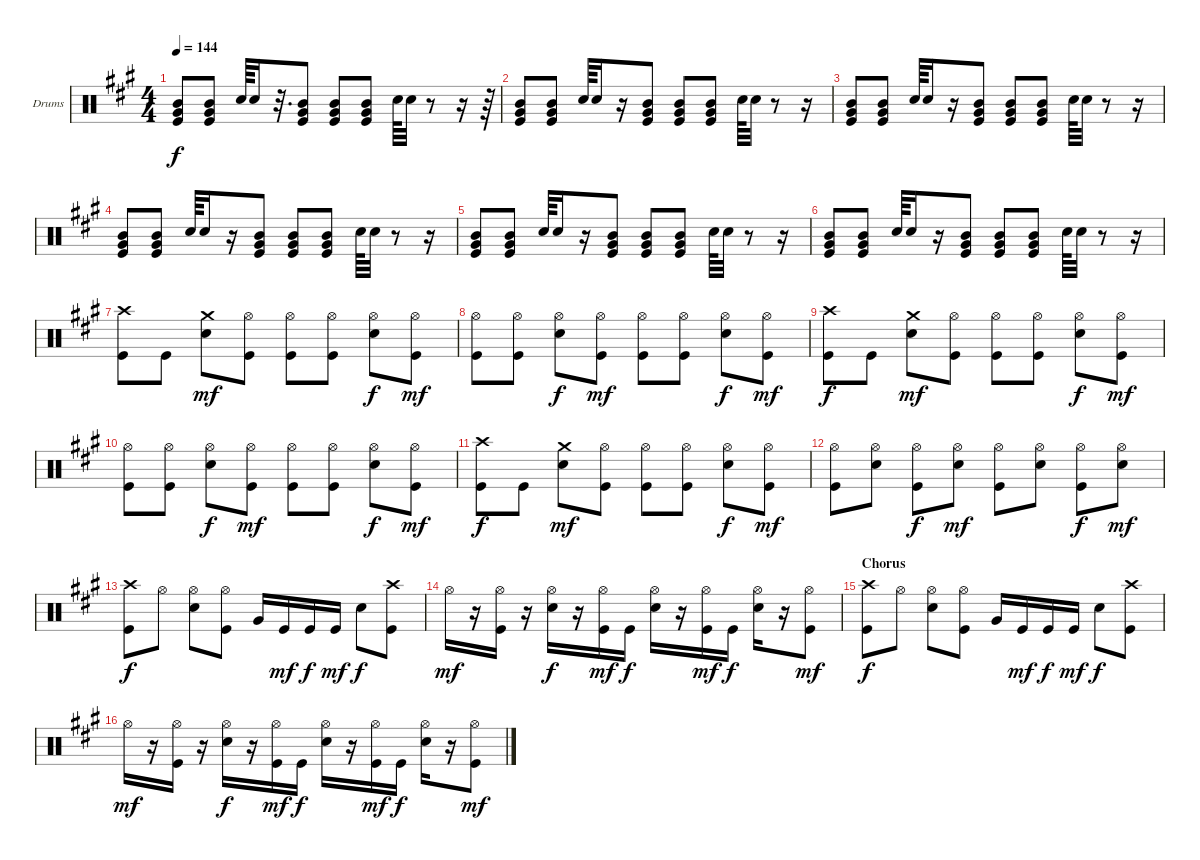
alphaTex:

\defaultSystemsLayout 4
\bracketExtendMode groupsimilarinstruments
\firstSystemTrackNameOrientation horizontal
\otherSystemsTrackNameOrientation horizontal
\track ("Drumkit" "Drums") {instrument percussion}
\staff {score}
\articulation defaults
\ts (4 4)
\tempo 144
\clef neutral
\scale
1.05801
\ks a
("Mid Tom (hit)" "Very Low Tom (hit)" "Kick (hit)").8{dy f} ("Mid Tom (hit)" "Very Low Tom (hit)" "Kick (hit)").8 "Snare (hit) 2".64 "Snare (hit) 2".16 r.32{d} ("Mid Tom (hit)" "Very Low Tom (hit)" "Kick (hit)").8 ("Mid Tom (hit)" "Very Low Tom (hit)" "Kick (hit)").8 ("Mid Tom (hit)" "Very Low Tom (hit)" "Kick (hit)").8 "Snare (hit) 2".64 "Snare (hit) 2".32 r.8 r.16 r.64 |
\scale
0.941992 ("Mid Tom (hit)" "Very Low Tom (hit)" "Kick (hit)").8 ("Mid Tom (hit)" "Very Low Tom (hit)" "Kick (hit)").8 "Snare (hit) 2".64 "Snare (hit) 2".16 r.16 ("Mid Tom (hit)" "Very Low Tom (hit)" "Kick (hit)").8 ("Mid Tom (hit)" "Very Low Tom (hit)" "Kick (hit)").8 ("Mid Tom (hit)" "Very Low Tom (hit)" "Kick (hit)").8 "Snare (hit) 2".64 "Snare (hit) 2".32 r.8 r.16 |
\scale
1.05801 ("Mid Tom (hit)" "Very Low Tom (hit)" "Kick (hit)").8 ("Mid Tom (hit)" "Very Low Tom (hit)" "Kick (hit)").8 "Snare (hit) 2".64 "Snare (hit) 2".16 r.16 ("Mid Tom (hit)" "Very Low Tom (hit)" "Kick (hit)").8 ("Mid Tom (hit)" "Very Low Tom (hit)" "Kick (hit)").8 ("Mid Tom (hit)" "Very Low Tom (hit)" "Kick (hit)").8 "Snare (hit) 2".64 "Snare (hit) 2".32 r.8 r.16 |
\scale
0.941992 ("Mid Tom (hit)" "Very Low Tom (hit)" "Kick (hit)").8 ("Mid Tom (hit)" "Very Low Tom (hit)" "Kick (hit)").8 "Snare (hit) 2".64 "Snare (hit) 2".16 r.16 ("Mid Tom (hit)" "Very Low Tom (hit)" "Kick (hit)").8 ("Mid Tom (hit)" "Very Low Tom (hit)" "Kick (hit)").8 ("Mid Tom (hit)" "Very Low Tom (hit)" "Kick (hit)").8 "Snare (hit) 2".64 "Snare (hit) 2".32 r.8 r.16 |
\scale
1.05801 ("Mid Tom (hit)" "Very Low Tom (hit)" "Kick (hit)").8 ("Mid Tom (hit)" "Very Low Tom (hit)" "Kick (hit)").8 "Snare (hit) 2".64 "Snare (hit) 2".16 r.16 ("Mid Tom (hit)" "Very Low Tom (hit)" "Kick (hit)").8 ("Mid Tom (hit)" "Very Low Tom (hit)" "Kick (hit)").8 ("Mid Tom (hit)" "Very Low Tom (hit)" "Kick (hit)").8 "Snare (hit) 2".64 "Snare (hit) 2".32 r.8 r.16 |
\scale
0.941992 ("Mid Tom (hit)" "Very Low Tom (hit)" "Kick (hit)").8 ("Mid Tom (hit)" "Very Low Tom (hit)" "Kick (hit)").8 "Snare (hit) 2".64 "Snare (hit) 2".16 r.16 ("Mid Tom (hit)" "Very Low Tom (hit)" "Kick (hit)").8 ("Mid Tom (hit)" "Very Low Tom (hit)" "Kick (hit)").8 ("Mid Tom (hit)" "Very Low Tom (hit)" "Kick (hit)").8 "Snare (hit) 2".64 "Snare (hit) 2".32 r.8 r.16 |
\scale
1.05801 ("Crash high (hit)" "Kick (hit)").8 "Kick (hit)".8 ("Crash medium (hit)" "Snare (hit) 2").8{dy mf} ("Hi-Hat (open)" "Kick (hit)").8 ("Hi-Hat (open)" "Kick (hit)").8 ("Hi-Hat (open)" "Kick (hit)").8 ("Hi-Hat (open)" "Snare (hit) 2").8{dy f} ("Hi-Hat (open)" "Kick (hit)").8{dy mf} |
\scale
0.941992 ("Hi-Hat (open)" "Kick (hit)").8 ("Hi-Hat (open)" "Kick (hit)").8 ("Hi-Hat (open)" "Snare (hit) 2").8{dy f} ("Hi-Hat (open)" "Kick (hit)").8{dy mf} ("Hi-Hat (open)" "Kick (hit)").8 ("Hi-Hat (open)" "Kick (hit)").8 ("Hi-Hat (open)" "Snare (hit) 2").8{dy f} ("Hi-Hat (open)" "Kick (hit)").8{dy mf} |
\scale
1.05801 ("Crash high (hit)" "Kick (hit)").8{dy f} "Kick (hit)".8 ("Crash medium (hit)" "Snare (hit) 2").8{dy mf} ("Hi-Hat (open)" "Kick (hit)").8 ("Hi-Hat (open)" "Kick (hit)").8 ("Hi-Hat (open)" "Kick (hit)").8 ("Hi-Hat (open)" "Snare (hit) 2").8{dy f} ("Hi-Hat (open)" "Kick (hit)").8{dy mf} |
\scale
0.941992 ("Hi-Hat (open)" "Kick (hit)").8 ("Hi-Hat (open)" "Kick (hit)").8 ("Hi-Hat (open)" "Snare (hit) 2").8{dy f} ("Hi-Hat (open)" "Kick (hit)").8{dy mf} ("Hi-Hat (open)" "Kick (hit)").8 ("Hi-Hat (open)" "Kick (hit)").8 ("Hi-Hat (open)" "Snare (hit) 2").8{dy f} ("Hi-Hat (open)" "Kick (hit)").8{dy mf} |
\scale
1.05801 ("Crash high (hit)" "Kick (hit)").8{dy f} "Kick (hit)".8 ("Crash medium (hit)" "Snare (hit) 2").8{dy mf} ("Hi-Hat (open)" "Kick (hit)").8 ("Hi-Hat (open)" "Kick (hit)").8 ("Hi-Hat (open)" "Kick (hit)").8 ("Hi-Hat (open)" "Snare (hit) 2").8{dy f} ("Hi-Hat (open)" "Kick (hit)").8{dy mf} |
\scale
0.941992 ("Hi-Hat (open)" "Kick (hit)").8 ("Hi-Hat (open)" "Snare (hit) 2").8 ("Hi-Hat (open)" "Kick (hit)").8{dy f} ("Hi-Hat (open)" "Snare (hit) 2").8{dy mf} ("Hi-Hat (open)" "Kick (hit)").8 ("Hi-Hat (open)" "Snare (hit) 2").8 ("Hi-Hat (open)" "Kick (hit)").8{dy f} ("Hi-Hat (open)" "Snare (hit) 2").8{dy mf} |
\scale
1.05801 ("Crash high (hit)" "Kick (hit)").8{dy f} "Hi-Hat (open)".8 ("Hi-Hat (open)" "Snare (hit) 2").8 ("Hi-Hat (open)" "Kick (hit)").8 "Very Low Tom (hit)".16 "Kick (hit)".16{dy mf} "Kick (hit)".16{dy f} "Kick (hit)".16{dy mf} "Snare (hit) 2".8{dy f} ("Crash high (hit)" "Kick (hit)").8 |
\scale
0.941992 "Hi-Hat (open)".16{dy mf} r.16 ("Hi-Hat (open)" "Kick (hit)").16 r.16 ("Hi-Hat (open)" "Snare (hit) 2").16{dy f} r.16 ("Hi-Hat (open)" "Kick (hit)").16{dy mf} "Kick (hit)".16{dy f} ("Hi-Hat (open)" "Snare (hit) 2").16 r.16 ("Hi-Hat (open)" "Kick (hit)").16{dy mf} "Kick (hit)".16{dy f} ("Hi-Hat (open)" "Snare (hit) 2").16 r.16 ("Hi-Hat (open)" "Kick (hit)").8{dy mf} |
\section ("" "Chorus")
\scale
1.05801 ("Crash high (hit)" "Kick (hit)").8{dy f} "Hi-Hat (open)".8 ("Hi-Hat (open)" "Snare (hit) 2").8 ("Hi-Hat (open)" "Kick (hit)").8 "Very Low Tom (hit)".16 "Kick (hit)".16{dy mf} "Kick (hit)".16{dy f} "Kick (hit)".16{dy mf} "Snare (hit) 2".8{dy f} ("Crash high (hit)" "Kick (hit)").8 |
\scale
0.941992 "Hi-Hat (open)".16{dy mf} r.16 ("Hi-Hat (open)" "Kick (hit)").16 r.16 ("Hi-Hat (open)" "Snare (hit) 2").16{dy f} r.16 ("Hi-Hat (open)" "Kick (hit)").16{dy mf} "Kick (hit)".16{dy f} ("Hi-Hat (open)" "Snare (hit) 2").16 r.16 ("Hi-Hat (open)" "Kick (hit)").16{dy mf} "Kick (hit)".16{dy f} ("Hi-Hat (open)" "Snare (hit) 2").16 r.16 ("Hi-Hat (open)" "Kick (hit)").8{dy mf}
